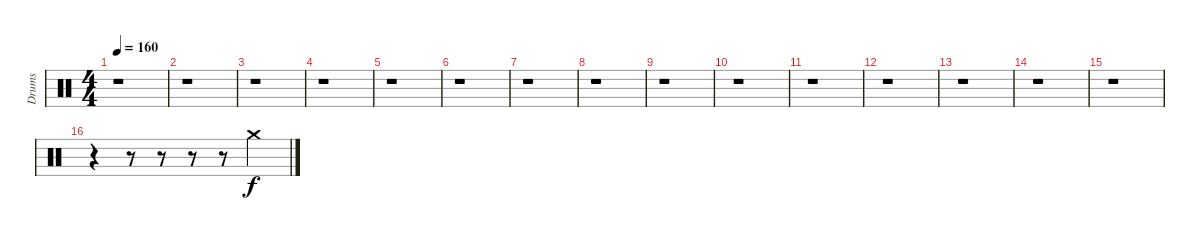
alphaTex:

\track ("Drums" "Drums") {instrument percussion}
\staff {score}
\articulation defaults
\ts (4 4)
\tempo 160
\clef neutral
\ks c
r.1{dy f} |
r.1 |
r.1 |
r.1 |
r.1 |
r.1 |
r.1 |
r.1 |
r.1 |
r.1 |
r.1 |
r.1 |
r.1 |
r.1 |
r.1 |
r.4 r.8 r.8 r.8 r.8 "Crash medium (hit)".4
